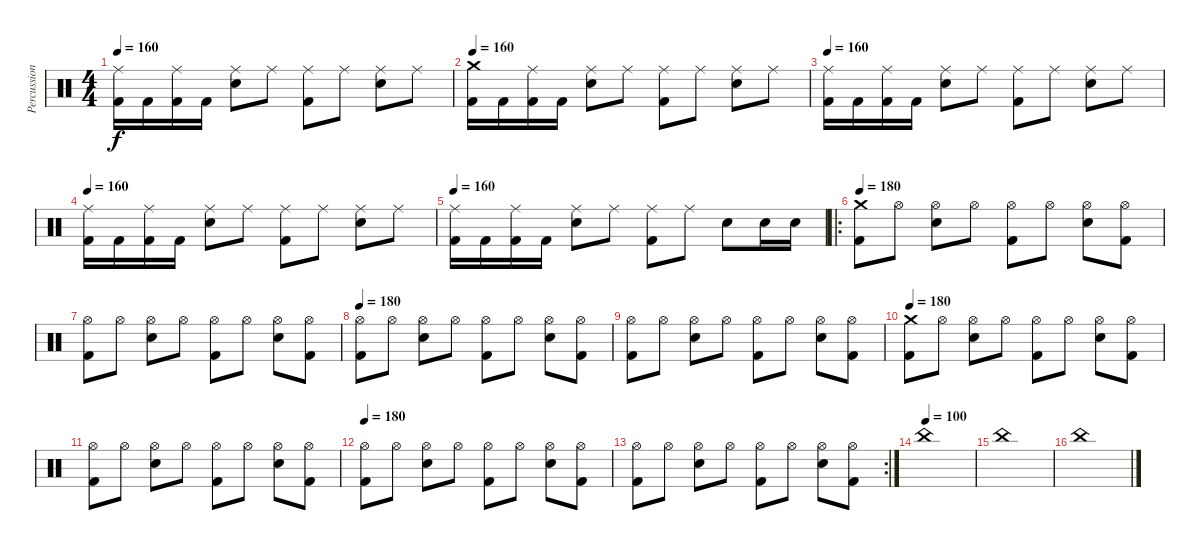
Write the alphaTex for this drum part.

\track ("Percussions" "Percussion") {instrument percussion}
\staff {score}
\articulation defaults
\ts (4 4)
\tempo 160
\clef neutral
\ks c
("Kick (hit) 2" "Ride (middle)").16{dy f} "Kick (hit) 2".16 ("Kick (hit) 2" "Ride (middle)").16 "Kick (hit) 2".16 ("Electric Snare (hit)" "Ride (middle)").8 "Ride (middle)".8 ("Kick (hit) 2" "Ride (middle)").8 "Ride (middle)".8 ("Electric Snare (hit)" "Ride (middle)").8 "Ride (middle)".8 |
\tempo 160
("Kick (hit) 2" "Crash medium (hit)").16 "Kick (hit) 2".16 ("Kick (hit) 2" "Ride (middle)").16 "Kick (hit) 2".16 ("Electric Snare (hit)" "Ride (middle)").8 "Ride (middle)".8 ("Kick (hit) 2" "Ride (middle)").8 "Ride (middle)".8 ("Electric Snare (hit)" "Ride (middle)").8 "Ride (middle)".8 |
\tempo 160
("Kick (hit) 2" "Ride (middle)").16 "Kick (hit) 2".16 ("Kick (hit) 2" "Ride (middle)").16 "Kick (hit) 2".16 ("Electric Snare (hit)" "Ride (middle)").8 "Ride (middle)".8 ("Kick (hit) 2" "Ride (middle)").8 "Ride (middle)".8 ("Electric Snare (hit)" "Ride (middle)").8 "Ride (middle)".8 |
\tempo 160
("Kick (hit) 2" "Ride (middle)").16 "Kick (hit) 2".16 ("Kick (hit) 2" "Ride (middle)").16 "Kick (hit) 2".16 ("Electric Snare (hit)" "Ride (middle)").8 "Ride (middle)".8 ("Kick (hit) 2" "Ride (middle)").8 "Ride (middle)".8 ("Electric Snare (hit)" "Ride (middle)").8 "Ride (middle)".8 |
\tempo 160
("Kick (hit) 2" "Ride (middle)").16 "Kick (hit) 2".16 ("Kick (hit) 2" "Ride (middle)").16 "Kick (hit) 2".16 ("Electric Snare (hit)" "Ride (middle)").8 "Ride (middle)".8 ("Kick (hit) 2" "Ride (middle)").8 "Ride (middle)".8 "Electric Snare (hit)".8 "Snare (hit) 2".16 "Snare (hit) 2".16 |
\ro
\tempo 180
("Crash medium (hit)" "Kick (hit) 2").8 "Hi-Hat (open)".8 ("Hi-Hat (open)" "Electric Snare (hit)").8 "Hi-Hat (open)".8 ("Hi-Hat (open)" "Kick (hit) 2").8 "Hi-Hat (open)".8 ("Hi-Hat (open)" "Electric Snare (hit)").8 ("Hi-Hat (open)" "Kick (hit) 2").8 |
("Hi-Hat (open)" "Kick (hit) 2").8 "Hi-Hat (open)".8 ("Hi-Hat (open)" "Electric Snare (hit)").8 "Hi-Hat (open)".8 ("Hi-Hat (open)" "Kick (hit) 2").8 "Hi-Hat (open)".8 ("Hi-Hat (open)" "Electric Snare (hit)").8 ("Hi-Hat (open)" "Kick (hit) 2").8 |
\tempo 180
("Hi-Hat (open)" "Kick (hit) 2").8 "Hi-Hat (open)".8 ("Hi-Hat (open)" "Electric Snare (hit)").8 "Hi-Hat (open)".8 ("Hi-Hat (open)" "Kick (hit) 2").8 "Hi-Hat (open)".8 ("Hi-Hat (open)" "Electric Snare (hit)").8 ("Hi-Hat (open)" "Kick (hit) 2").8 |
("Hi-Hat (open)" "Kick (hit) 2").8 "Hi-Hat (open)".8 ("Hi-Hat (open)" "Electric Snare (hit)").8 "Hi-Hat (open)".8 ("Hi-Hat (open)" "Kick (hit) 2").8 "Hi-Hat (open)".8 ("Hi-Hat (open)" "Electric Snare (hit)").8 ("Hi-Hat (open)" "Kick (hit) 2").8 |
\tempo 180
("Crash medium (hit)" "Kick (hit) 2").8 "Hi-Hat (open)".8 ("Hi-Hat (open)" "Electric Snare (hit)").8 "Hi-Hat (open)".8 ("Hi-Hat (open)" "Kick (hit) 2").8 "Hi-Hat (open)".8 ("Hi-Hat (open)" "Electric Snare (hit)").8 ("Hi-Hat (open)" "Kick (hit) 2").8 |
("Hi-Hat (open)" "Kick (hit) 2").8 "Hi-Hat (open)".8 ("Hi-Hat (open)" "Electric Snare (hit)").8 "Hi-Hat (open)".8 ("Hi-Hat (open)" "Kick (hit) 2").8 "Hi-Hat (open)".8 ("Hi-Hat (open)" "Electric Snare (hit)").8 ("Hi-Hat (open)" "Kick (hit) 2").8 |
\tempo 180
("Hi-Hat (open)" "Kick (hit) 2").8 "Hi-Hat (open)".8 ("Hi-Hat (open)" "Electric Snare (hit)").8 "Hi-Hat (open)".8 ("Hi-Hat (open)" "Kick (hit) 2").8 "Hi-Hat (open)".8 ("Hi-Hat (open)" "Electric Snare (hit)").8 ("Hi-Hat (open)" "Kick (hit) 2").8 |
\rc 2
("Hi-Hat (open)" "Kick (hit) 2").8 "Hi-Hat (open)".8 ("Hi-Hat (open)" "Electric Snare (hit)").8 "Hi-Hat (open)".8 ("Hi-Hat (open)" "Kick (hit) 2").8 "Hi-Hat (open)".8 ("Hi-Hat (open)" "Electric Snare (hit)").8 ("Hi-Hat (open)" "Kick (hit) 2").8 |
\tempo (100)
"China (hit)".1 |
"China (hit)".1 |
"China (hit)".1
